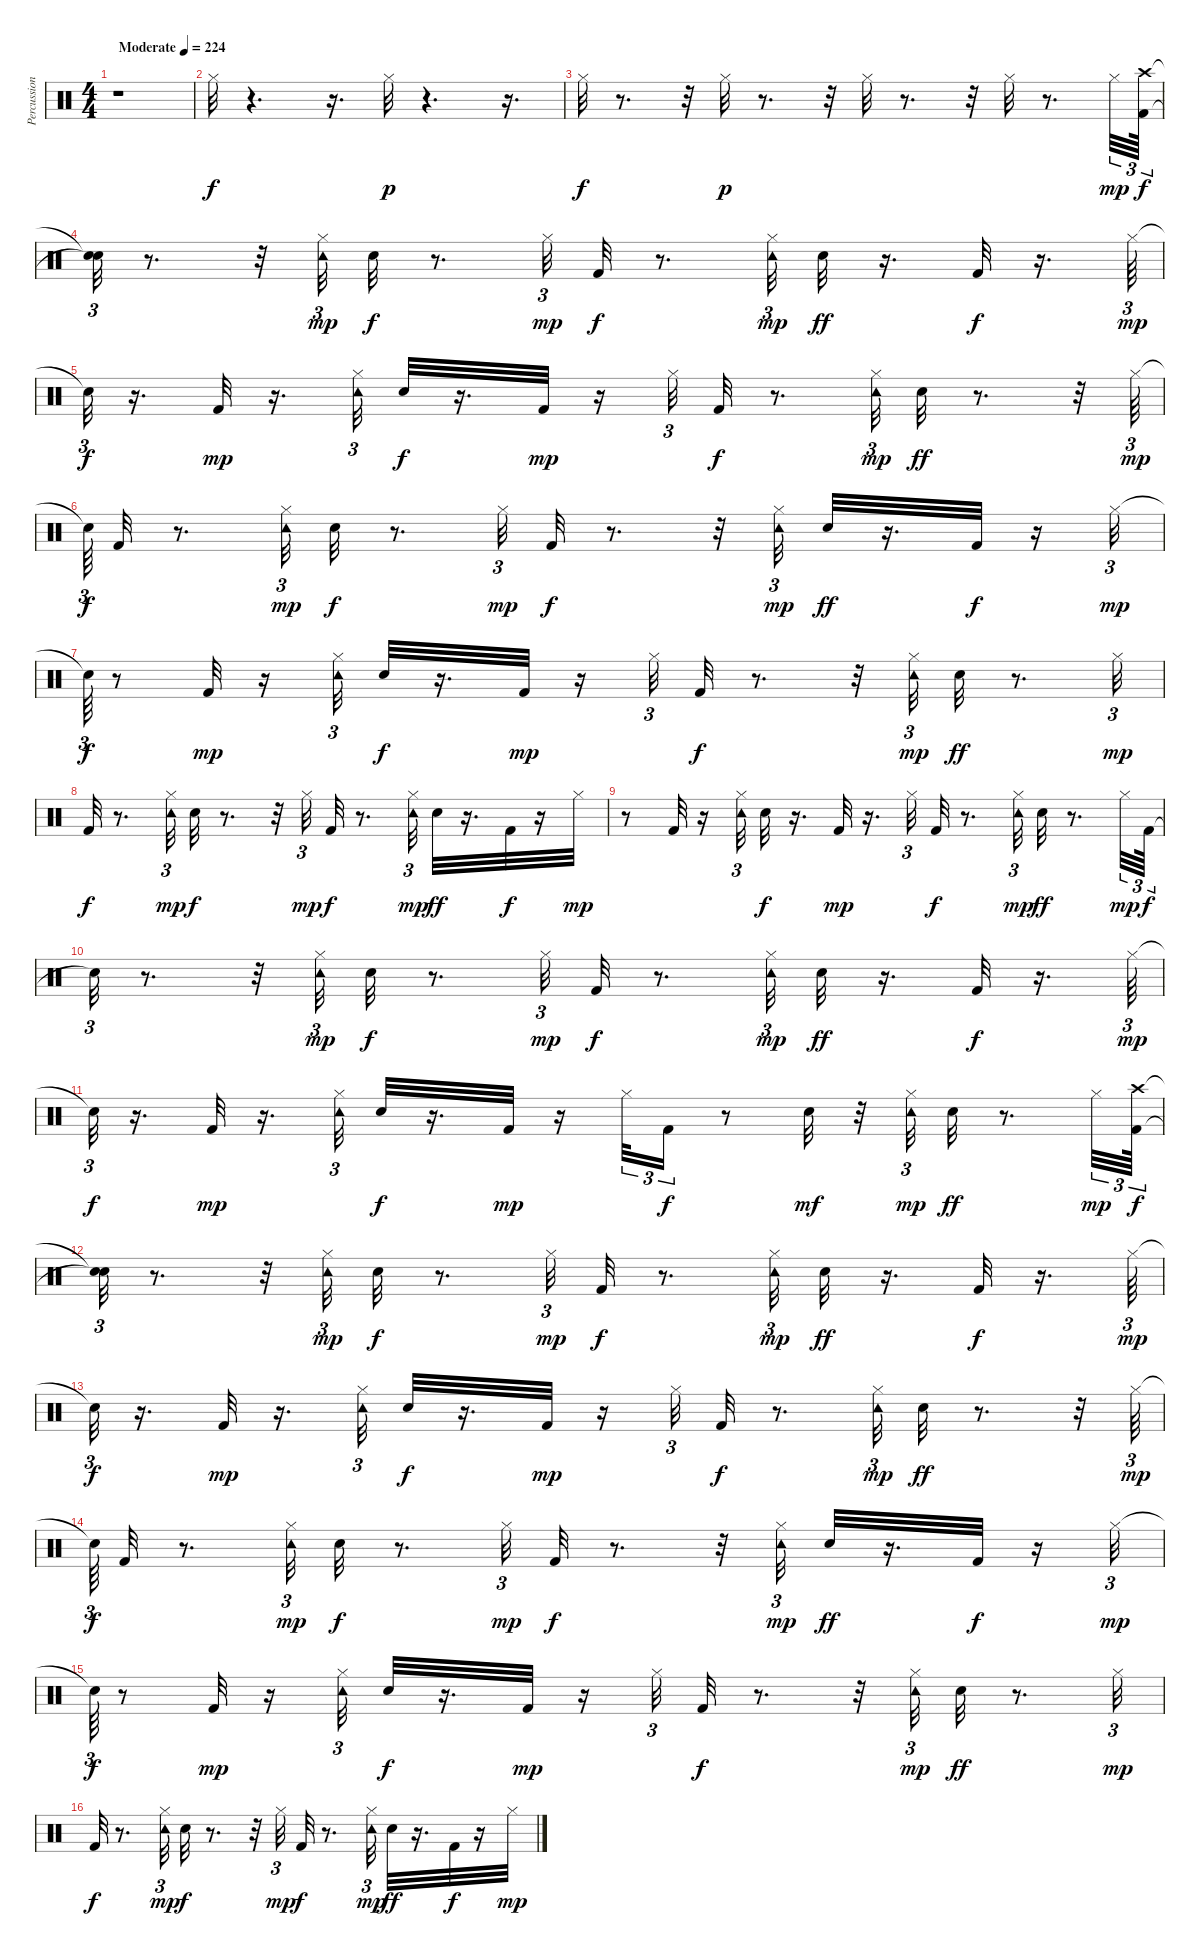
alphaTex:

\track ("Percussion" "Percussion") {instrument percussion}
\staff {score}
\articulation defaults
\ts (4 4)
\tempo (224 "Moderate")
\clef neutral
\ks c
r.1{dy f} |
"Hi-Hat (closed)".32 r.4{d} r.16{d} "Hi-Hat (closed)".32{dy p} r.4{d} r.16{d} |
"Hi-Hat (closed)".32{dy f} r.8{d} r.32 "Hi-Hat (closed)".32{dy p} r.8{d} r.32 "Hi-Hat (closed)".32 r.8{d} r.32 "Hi-Hat (closed)".32 r.8{d} "Hi-Hat (closed)".32{tu (3 2) dy mp} ("Kick (hit) 2" "Crash high (hit)").64{tu (3 2) dy f} |
("Snare (hit)"{t} "Snare (hit)"{t}).32{tu (3 2)} r.8{d} r.32 ("Tambourine (hit)" "Hi-Hat (closed)").32{tu (3 2) dy mp} "Snare (hit) 2".32{dy f} r.8{d} "Hi-Hat (closed)".32{tu (3 2) dy mp} "Kick (hit) 2".32{dy f} r.8{d} ("Tambourine (hit)" "Hi-Hat (closed)").32{tu (3 2) dy mp} "Snare (hit) 2".32{dy ff} r.16{d} "Kick (hit) 2".32{dy f} r.16{d} "Hi-Hat (closed)".64{tu (3 2) dy mp} |
"Snare (hit)"{t}.32{tu (3 2) dy f} r.16{d} "Kick (hit) 2".32{dy mp} r.16{d} ("Tambourine (hit)" "Hi-Hat (closed)").32{tu (3 2)} "Snare (hit) 2".32{dy f} r.16{d} "Kick (hit) 2".32{dy mp} r.16 "Hi-Hat (closed)".32{tu (3 2)} "Kick (hit) 2".32{dy f} r.8{d} ("Tambourine (hit)" "Hi-Hat (closed)").32{tu (3 2) dy mp} "Snare (hit) 2".32{dy ff} r.8{d} r.32 "Hi-Hat (closed)".64{tu (3 2) dy mp} |
"Snare (hit)"{t}.64{tu (3 2) dy f} "Kick (hit) 2".32 r.8{d} ("Tambourine (hit)" "Hi-Hat (closed)").32{tu (3 2) dy mp} "Snare (hit) 2".32{dy f} r.8{d} "Hi-Hat (closed)".32{tu (3 2) dy mp} "Kick (hit) 2".32{dy f} r.8{d} r.32 ("Tambourine (hit)" "Hi-Hat (closed)").32{tu (3 2) dy mp} "Snare (hit) 2".32{dy ff} r.16{d} "Kick (hit) 2".32{dy f} r.16 "Hi-Hat (closed)".32{tu (3 2) dy mp} |
"Snare (hit)"{t}.64{tu (3 2) dy f} r.8 "Kick (hit) 2".32{dy mp} r.16 ("Tambourine (hit)" "Hi-Hat (closed)").32{tu (3 2)} "Snare (hit) 2".32{dy f} r.16{d} "Kick (hit) 2".32{dy mp} r.16 "Hi-Hat (closed)".32{tu (3 2)} "Kick (hit) 2".32{dy f} r.8{d} r.32 ("Tambourine (hit)" "Hi-Hat (closed)").32{tu (3 2) dy mp} "Snare (hit) 2".32{dy ff} r.8{d} "Hi-Hat (closed)".32{tu (3 2) dy mp} |
"Kick (hit) 2".32{dy f} r.8{d} ("Tambourine (hit)" "Hi-Hat (closed)").32{tu (3 2) dy mp} "Snare (hit) 2".32{dy f} r.8{d} r.32 "Hi-Hat (closed)".32{tu (3 2) dy mp} "Kick (hit) 2".32{dy f} r.8{d} ("Tambourine (hit)" "Hi-Hat (closed)").32{tu (3 2) dy mp} "Snare (hit) 2".32{dy ff} r.16{d} "Kick (hit) 2".32{dy f} r.16 "Hi-Hat (closed)".32{dy mp} |
r.8 "Kick (hit) 2".32 r.16 ("Tambourine (hit)" "Hi-Hat (closed)").32{tu (3 2)} "Snare (hit) 2".32{dy f} r.16{d} "Kick (hit) 2".32{dy mp} r.16{d} "Hi-Hat (closed)".32{tu (3 2)} "Kick (hit) 2".32{dy f} r.8{d} ("Tambourine (hit)" "Hi-Hat (closed)").32{tu (3 2) dy mp} "Snare (hit) 2".32{dy ff} r.8{d} "Hi-Hat (closed)".32{tu (3 2) dy mp} "Kick (hit) 2".64{tu (3 2) dy f} |
"Snare (hit)"{t}.32{tu (3 2)} r.8{d} r.32 ("Tambourine (hit)" "Hi-Hat (closed)").32{tu (3 2) dy mp} "Snare (hit) 2".32{dy f} r.8{d} "Hi-Hat (closed)".32{tu (3 2) dy mp} "Kick (hit) 2".32{dy f} r.8{d} ("Tambourine (hit)" "Hi-Hat (closed)").32{tu (3 2) dy mp} "Snare (hit) 2".32{dy ff} r.16{d} "Kick (hit) 2".32{dy f} r.16{d} "Hi-Hat (closed)".64{tu (3 2) dy mp} |
"Snare (hit)"{t}.32{tu (3 2) dy f} r.16{d} "Kick (hit) 2".32{dy mp} r.16{d} ("Tambourine (hit)" "Hi-Hat (closed)").32{tu (3 2)} "Snare (hit) 2".32{dy f} r.16{d} "Kick (hit) 2".32{dy mp} r.16 "Hi-Hat (closed)".32{tu (3 2)} "Kick (hit) 2".16{tu (3 2) dy f} r.8 "Snare (hit) 2".32{dy mf} r.32 ("Tambourine (hit)" "Hi-Hat (closed)").32{tu (3 2) dy mp} "Snare (hit) 2".32{dy ff} r.8{d} "Hi-Hat (closed)".32{tu (3 2) dy mp} ("Kick (hit) 2" "Crash high (hit)").64{tu (3 2) dy f} |
("Snare (hit)"{t} "Snare (hit)"{t}).32{tu (3 2)} r.8{d} r.32 ("Tambourine (hit)" "Hi-Hat (closed)").32{tu (3 2) dy mp} "Snare (hit) 2".32{dy f} r.8{d} "Hi-Hat (closed)".32{tu (3 2) dy mp} "Kick (hit) 2".32{dy f} r.8{d} ("Tambourine (hit)" "Hi-Hat (closed)").32{tu (3 2) dy mp} "Snare (hit) 2".32{dy ff} r.16{d} "Kick (hit) 2".32{dy f} r.16{d} "Hi-Hat (closed)".64{tu (3 2) dy mp} |
"Snare (hit)"{t}.32{tu (3 2) dy f} r.16{d} "Kick (hit) 2".32{dy mp} r.16{d} ("Tambourine (hit)" "Hi-Hat (closed)").32{tu (3 2)} "Snare (hit) 2".32{dy f} r.16{d} "Kick (hit) 2".32{dy mp} r.16 "Hi-Hat (closed)".32{tu (3 2)} "Kick (hit) 2".32{dy f} r.8{d} ("Tambourine (hit)" "Hi-Hat (closed)").32{tu (3 2) dy mp} "Snare (hit) 2".32{dy ff} r.8{d} r.32 "Hi-Hat (closed)".64{tu (3 2) dy mp} |
"Snare (hit)"{t}.64{tu (3 2) dy f} "Kick (hit) 2".32 r.8{d} ("Tambourine (hit)" "Hi-Hat (closed)").32{tu (3 2) dy mp} "Snare (hit) 2".32{dy f} r.8{d} "Hi-Hat (closed)".32{tu (3 2) dy mp} "Kick (hit) 2".32{dy f} r.8{d} r.32 ("Tambourine (hit)" "Hi-Hat (closed)").32{tu (3 2) dy mp} "Snare (hit) 2".32{dy ff} r.16{d} "Kick (hit) 2".32{dy f} r.16 "Hi-Hat (closed)".32{tu (3 2) dy mp} |
"Snare (hit)"{t}.64{tu (3 2) dy f} r.8 "Kick (hit) 2".32{dy mp} r.16 ("Tambourine (hit)" "Hi-Hat (closed)").32{tu (3 2)} "Snare (hit) 2".32{dy f} r.16{d} "Kick (hit) 2".32{dy mp} r.16 "Hi-Hat (closed)".32{tu (3 2)} "Kick (hit) 2".32{dy f} r.8{d} r.32 ("Tambourine (hit)" "Hi-Hat (closed)").32{tu (3 2) dy mp} "Snare (hit) 2".32{dy ff} r.8{d} "Hi-Hat (closed)".32{tu (3 2) dy mp} |
"Kick (hit) 2".32{dy f} r.8{d} ("Tambourine (hit)" "Hi-Hat (closed)").32{tu (3 2) dy mp} "Snare (hit) 2".32{dy f} r.8{d} r.32 "Hi-Hat (closed)".32{tu (3 2) dy mp} "Kick (hit) 2".32{dy f} r.8{d} ("Tambourine (hit)" "Hi-Hat (closed)").32{tu (3 2) dy mp} "Snare (hit) 2".32{dy ff} r.16{d} "Kick (hit) 2".32{dy f} r.16 "Hi-Hat (closed)".32{dy mp}
